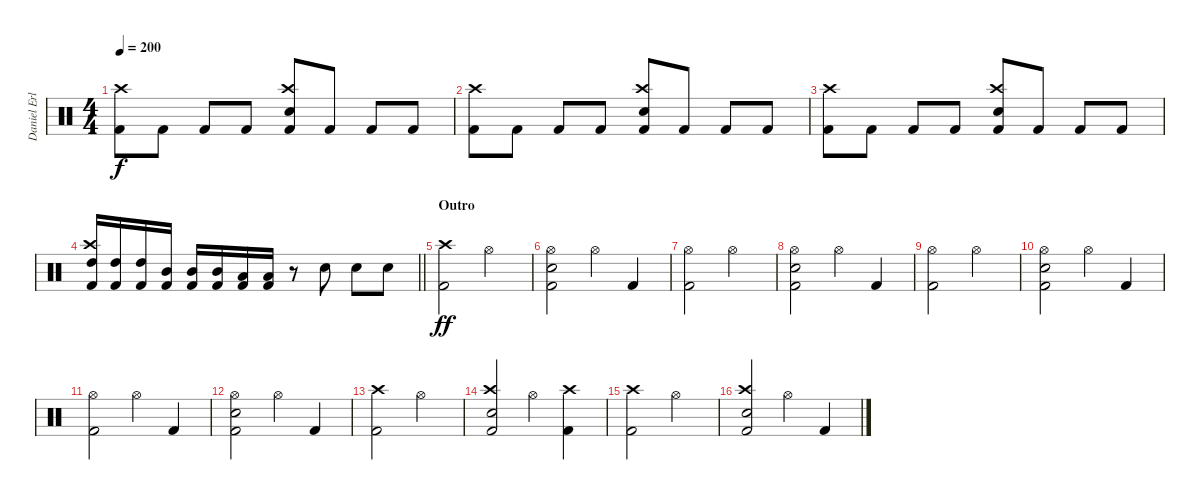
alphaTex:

\track ("Daniel Erlandsson" "Daniel Erl") {instrument percussion}
\staff {score}
\articulation defaults
\ts (4 4)
\tempo 200
\clef neutral
\ks c
("Kick (hit) 2" "Crash high (hit)").8{dy f} "Kick (hit) 2".8 "Kick (hit) 2".8 "Kick (hit) 2".8 ("Kick (hit) 2" "Snare (hit) 2" "Crash high (hit)").8 "Kick (hit) 2".8 "Kick (hit) 2".8 "Kick (hit) 2".8 |
("Kick (hit) 2" "Crash high (hit)").8 "Kick (hit) 2".8 "Kick (hit) 2".8 "Kick (hit) 2".8 ("Kick (hit) 2" "Snare (hit) 2" "Crash high (hit)").8 "Kick (hit) 2".8 "Kick (hit) 2".8 "Kick (hit) 2".8 |
("Kick (hit) 2" "Crash high (hit)").8 "Kick (hit) 2".8 "Kick (hit) 2".8 "Kick (hit) 2".8 ("Kick (hit) 2" "Snare (hit) 2" "Crash high (hit)").8 "Kick (hit) 2".8 "Kick (hit) 2".8 "Kick (hit) 2".8 |
\barLineRight lightlight
("Kick (hit) 2" "High Tom (hit)" "Crash high (hit)").16 ("Kick (hit) 2" "High Tom (hit)").16 ("Kick (hit) 2" "High Tom (hit)").16 ("Kick (hit) 2" "Mid Tom (hit)").16 ("Kick (hit) 2" "Mid Tom (hit)").16 ("Kick (hit) 2" "Mid Tom (hit)").16 ("Kick (hit) 2" "Low Tom (hit)").16 ("Kick (hit) 2" "Low Tom (hit)").16 r.8 "Snare (hit) 2".8 "Snare (hit) 2".8 "Snare (hit) 2".8 |
\section ("" "Outro")
("Kick (hit) 2" "Crash high (hit)").2{dy ff} "Hi-Hat (open)".2 |
("Kick (hit) 2" "Snare (hit) 2" "Hi-Hat (open)").2 "Hi-Hat (open)".4 "Kick (hit) 2".4 |
("Kick (hit) 2" "Hi-Hat (open)").2 "Hi-Hat (open)".2 |
("Kick (hit) 2" "Snare (hit) 2" "Hi-Hat (open)").2 "Hi-Hat (open)".4 "Kick (hit) 2".4 |
("Kick (hit) 2" "Hi-Hat (open)").2 "Hi-Hat (open)".2 |
("Kick (hit) 2" "Snare (hit) 2" "Hi-Hat (open)").2 "Hi-Hat (open)".4 "Kick (hit) 2".4 |
("Kick (hit) 2" "Hi-Hat (open)").2 "Hi-Hat (open)".4 "Kick (hit) 2".4 |
("Kick (hit) 2" "Snare (hit) 2" "Hi-Hat (open)").2 "Hi-Hat (open)".4 "Kick (hit) 2".4 |
("Kick (hit) 2" "Crash high (hit)").2 "Hi-Hat (open)".2 |
("Kick (hit) 2" "Snare (hit) 2" "Crash high (hit)").2 "Hi-Hat (open)".4 ("Kick (hit) 2" "Crash high (hit)").4 |
("Kick (hit) 2" "Crash high (hit)").2 "Hi-Hat (open)".2 |
("Kick (hit) 2" "Snare (hit) 2" "Crash high (hit)").2 "Hi-Hat (open)".4 "Kick (hit) 2".4
